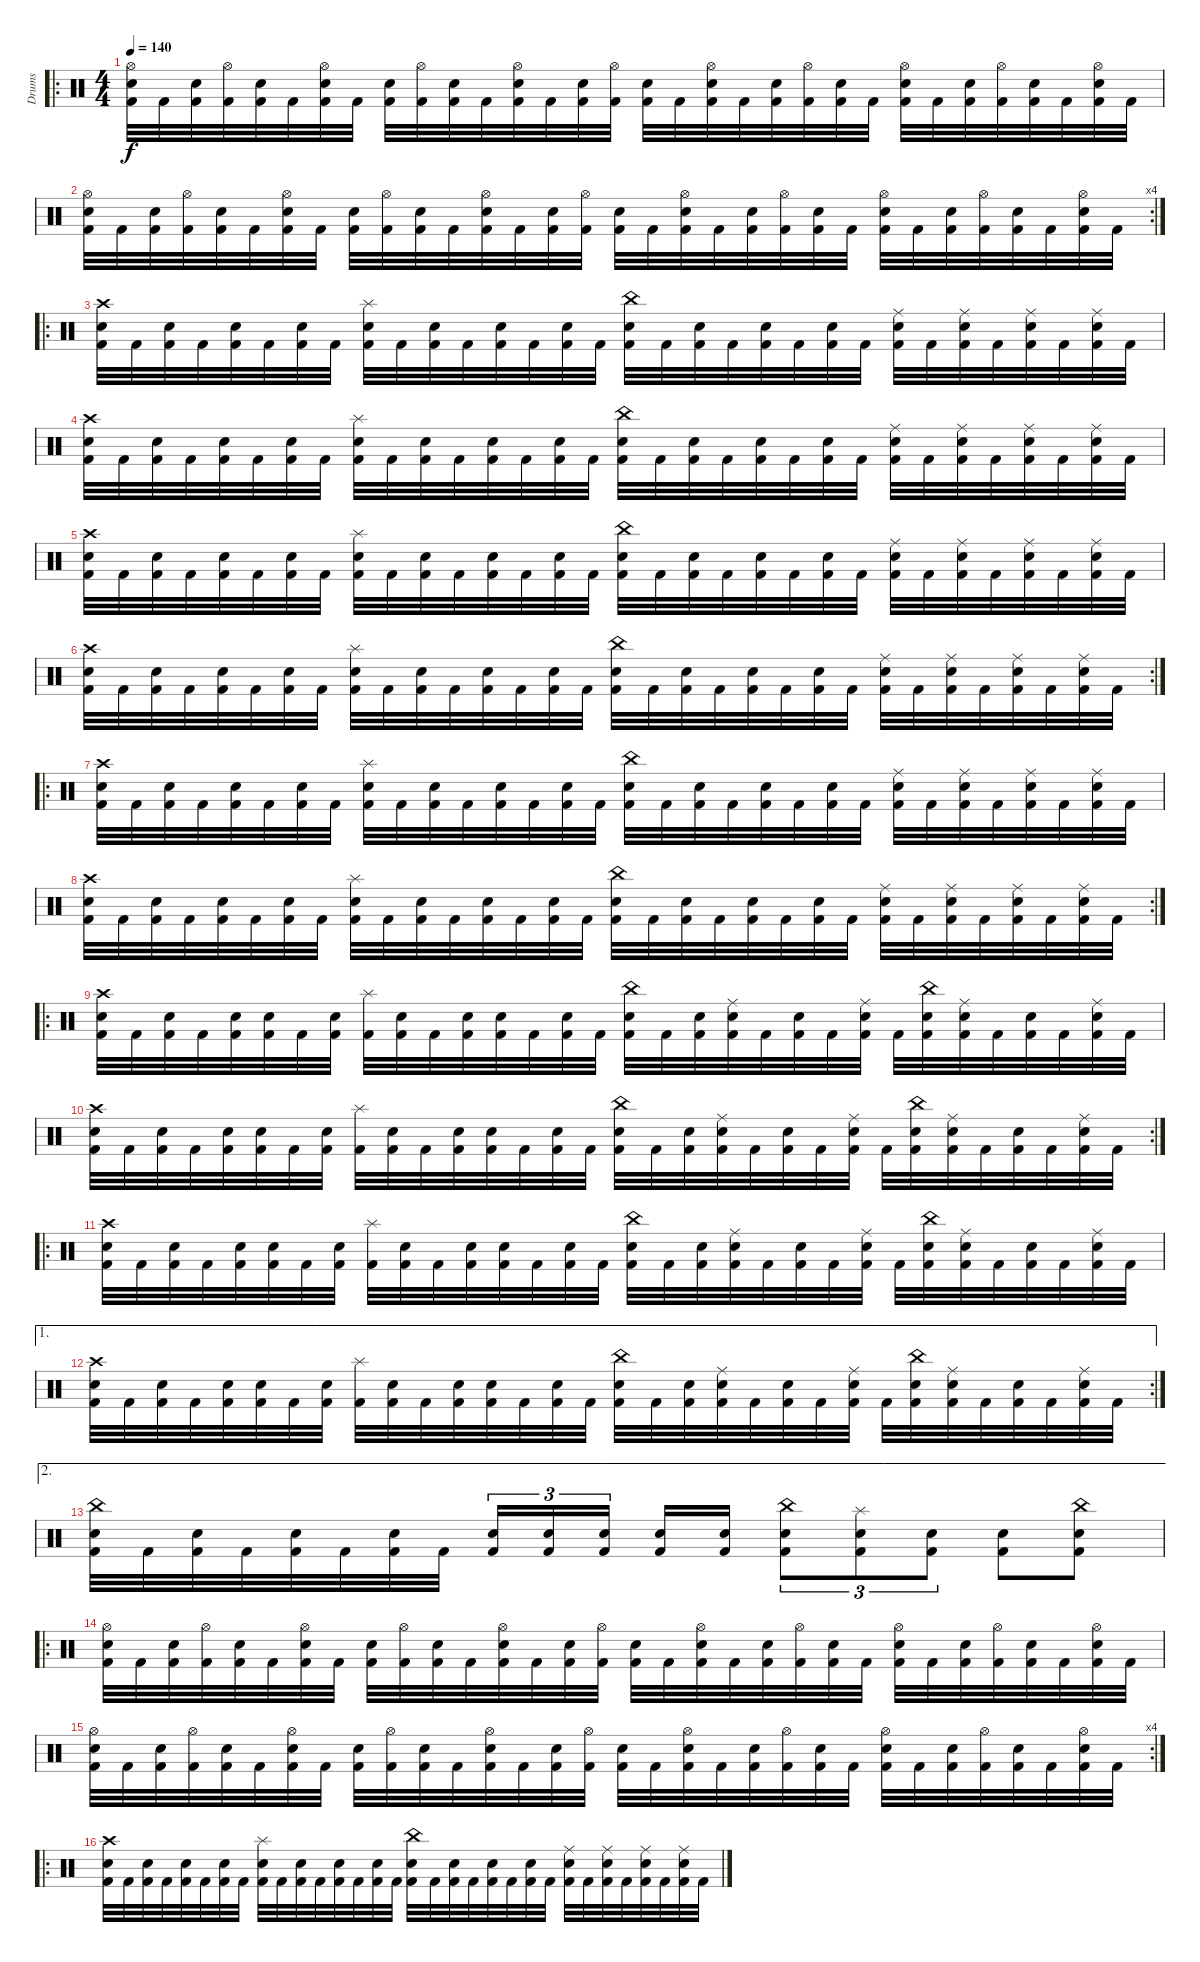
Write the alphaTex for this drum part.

\track ("Drums" "Drums") {instrument percussion}
\staff {score}
\articulation defaults
\ro
\ts (4 4)
\tempo 140
\clef neutral
\ks c
("Hi-Hat (open)" "Snare (hit) 2" "Kick (hit) 2").32{dy f} "Kick (hit) 2".32 ("Snare (hit) 2" "Kick (hit) 2").32 ("Hi-Hat (open)" "Kick (hit) 2").32 ("Snare (hit) 2" "Kick (hit) 2").32 "Kick (hit) 2".32 ("Hi-Hat (open)" "Snare (hit) 2" "Kick (hit) 2").32 "Kick (hit) 2".32 ("Snare (hit) 2" "Kick (hit) 2").32 ("Hi-Hat (open)" "Kick (hit) 2").32 ("Snare (hit) 2" "Kick (hit) 2").32 "Kick (hit) 2".32 ("Hi-Hat (open)" "Snare (hit) 2" "Kick (hit) 2").32 "Kick (hit) 2".32 ("Snare (hit) 2" "Kick (hit) 2").32 ("Hi-Hat (open)" "Kick (hit) 2").32 ("Snare (hit) 2" "Kick (hit) 2").32 "Kick (hit) 2".32 ("Hi-Hat (open)" "Snare (hit) 2" "Kick (hit) 2").32 "Kick (hit) 2".32 ("Snare (hit) 2" "Kick (hit) 2").32 ("Hi-Hat (open)" "Kick (hit) 2").32 ("Snare (hit) 2" "Kick (hit) 2").32 "Kick (hit) 2".32 ("Hi-Hat (open)" "Snare (hit) 2" "Kick (hit) 2").32 "Kick (hit) 2".32 ("Snare (hit) 2" "Kick (hit) 2").32 ("Hi-Hat (open)" "Kick (hit) 2").32 ("Snare (hit) 2" "Kick (hit) 2").32 "Kick (hit) 2".32 ("Hi-Hat (open)" "Snare (hit) 2" "Kick (hit) 2").32 "Kick (hit) 2".32 |
\rc 4
("Hi-Hat (open)" "Snare (hit) 2" "Kick (hit) 2").32 "Kick (hit) 2".32 ("Snare (hit) 2" "Kick (hit) 2").32 ("Hi-Hat (open)" "Kick (hit) 2").32 ("Snare (hit) 2" "Kick (hit) 2").32 "Kick (hit) 2".32 ("Hi-Hat (open)" "Snare (hit) 2" "Kick (hit) 2").32 "Kick (hit) 2".32 ("Snare (hit) 2" "Kick (hit) 2").32 ("Hi-Hat (open)" "Kick (hit) 2").32 ("Snare (hit) 2" "Kick (hit) 2").32 "Kick (hit) 2".32 ("Hi-Hat (open)" "Snare (hit) 2" "Kick (hit) 2").32 "Kick (hit) 2".32 ("Snare (hit) 2" "Kick (hit) 2").32 ("Hi-Hat (open)" "Kick (hit) 2").32 ("Snare (hit) 2" "Kick (hit) 2").32 "Kick (hit) 2".32 ("Hi-Hat (open)" "Snare (hit) 2" "Kick (hit) 2").32 "Kick (hit) 2".32 ("Snare (hit) 2" "Kick (hit) 2").32 ("Hi-Hat (open)" "Kick (hit) 2").32 ("Snare (hit) 2" "Kick (hit) 2").32 "Kick (hit) 2".32 ("Hi-Hat (open)" "Snare (hit) 2" "Kick (hit) 2").32 "Kick (hit) 2".32 ("Snare (hit) 2" "Kick (hit) 2").32 ("Hi-Hat (open)" "Kick (hit) 2").32 ("Snare (hit) 2" "Kick (hit) 2").32 "Kick (hit) 2".32 ("Hi-Hat (open)" "Snare (hit) 2" "Kick (hit) 2").32 "Kick (hit) 2".32 |
\ro
("Crash high (hit)" "Snare (hit) 2" "Kick (hit) 2").32 "Kick (hit) 2".32 ("Snare (hit) 2" "Kick (hit) 2").32 "Kick (hit) 2".32 ("Snare (hit) 2" "Kick (hit) 2").32 "Kick (hit) 2".32 ("Snare (hit) 2" "Kick (hit) 2").32 "Kick (hit) 2".32 ("Splash (hit)" "Snare (hit) 2" "Kick (hit) 2").32 "Kick (hit) 2".32 ("Snare (hit) 2" "Kick (hit) 2").32 "Kick (hit) 2".32 ("Snare (hit) 2" "Kick (hit) 2").32 "Kick (hit) 2".32 ("Snare (hit) 2" "Kick (hit) 2").32 "Kick (hit) 2".32 ("China (hit)" "Snare (hit) 2" "Kick (hit) 2").32 "Kick (hit) 2".32 ("Snare (hit) 2" "Kick (hit) 2").32 "Kick (hit) 2".32 ("Snare (hit) 2" "Kick (hit) 2").32 "Kick (hit) 2".32 ("Snare (hit) 2" "Kick (hit) 2").32 "Kick (hit) 2".32 ("Ride (middle)" "Snare (hit) 2" "Kick (hit) 2").32 "Kick (hit) 2".32 ("Ride (middle)" "Snare (hit) 2" "Kick (hit) 2").32 "Kick (hit) 2".32 ("Ride (middle)" "Snare (hit) 2" "Kick (hit) 2").32 "Kick (hit) 2".32 ("Ride (middle)" "Snare (hit) 2" "Kick (hit) 2").32 "Kick (hit) 2".32 |
("Crash high (hit)" "Snare (hit) 2" "Kick (hit) 2").32 "Kick (hit) 2".32 ("Snare (hit) 2" "Kick (hit) 2").32 "Kick (hit) 2".32 ("Snare (hit) 2" "Kick (hit) 2").32 "Kick (hit) 2".32 ("Snare (hit) 2" "Kick (hit) 2").32 "Kick (hit) 2".32 ("Splash (hit)" "Snare (hit) 2" "Kick (hit) 2").32 "Kick (hit) 2".32 ("Snare (hit) 2" "Kick (hit) 2").32 "Kick (hit) 2".32 ("Snare (hit) 2" "Kick (hit) 2").32 "Kick (hit) 2".32 ("Snare (hit) 2" "Kick (hit) 2").32 "Kick (hit) 2".32 ("China (hit)" "Snare (hit) 2" "Kick (hit) 2").32 "Kick (hit) 2".32 ("Snare (hit) 2" "Kick (hit) 2").32 "Kick (hit) 2".32 ("Snare (hit) 2" "Kick (hit) 2").32 "Kick (hit) 2".32 ("Snare (hit) 2" "Kick (hit) 2").32 "Kick (hit) 2".32 ("Ride (middle)" "Snare (hit) 2" "Kick (hit) 2").32 "Kick (hit) 2".32 ("Ride (middle)" "Snare (hit) 2" "Kick (hit) 2").32 "Kick (hit) 2".32 ("Ride (middle)" "Snare (hit) 2" "Kick (hit) 2").32 "Kick (hit) 2".32 ("Ride (middle)" "Snare (hit) 2" "Kick (hit) 2").32 "Kick (hit) 2".32 |
("Crash high (hit)" "Snare (hit) 2" "Kick (hit) 2").32 "Kick (hit) 2".32 ("Snare (hit) 2" "Kick (hit) 2").32 "Kick (hit) 2".32 ("Snare (hit) 2" "Kick (hit) 2").32 "Kick (hit) 2".32 ("Snare (hit) 2" "Kick (hit) 2").32 "Kick (hit) 2".32 ("Splash (hit)" "Snare (hit) 2" "Kick (hit) 2").32 "Kick (hit) 2".32 ("Snare (hit) 2" "Kick (hit) 2").32 "Kick (hit) 2".32 ("Snare (hit) 2" "Kick (hit) 2").32 "Kick (hit) 2".32 ("Snare (hit) 2" "Kick (hit) 2").32 "Kick (hit) 2".32 ("China (hit)" "Snare (hit) 2" "Kick (hit) 2").32 "Kick (hit) 2".32 ("Snare (hit) 2" "Kick (hit) 2").32 "Kick (hit) 2".32 ("Snare (hit) 2" "Kick (hit) 2").32 "Kick (hit) 2".32 ("Snare (hit) 2" "Kick (hit) 2").32 "Kick (hit) 2".32 ("Ride (middle)" "Snare (hit) 2" "Kick (hit) 2").32 "Kick (hit) 2".32 ("Ride (middle)" "Snare (hit) 2" "Kick (hit) 2").32 "Kick (hit) 2".32 ("Ride (middle)" "Snare (hit) 2" "Kick (hit) 2").32 "Kick (hit) 2".32 ("Ride (middle)" "Snare (hit) 2" "Kick (hit) 2").32 "Kick (hit) 2".32 |
\rc 2
("Crash high (hit)" "Snare (hit) 2" "Kick (hit) 2").32 "Kick (hit) 2".32 ("Snare (hit) 2" "Kick (hit) 2").32 "Kick (hit) 2".32 ("Snare (hit) 2" "Kick (hit) 2").32 "Kick (hit) 2".32 ("Snare (hit) 2" "Kick (hit) 2").32 "Kick (hit) 2".32 ("Splash (hit)" "Snare (hit) 2" "Kick (hit) 2").32 "Kick (hit) 2".32 ("Snare (hit) 2" "Kick (hit) 2").32 "Kick (hit) 2".32 ("Snare (hit) 2" "Kick (hit) 2").32 "Kick (hit) 2".32 ("Snare (hit) 2" "Kick (hit) 2").32 "Kick (hit) 2".32 ("China (hit)" "Snare (hit) 2" "Kick (hit) 2").32 "Kick (hit) 2".32 ("Snare (hit) 2" "Kick (hit) 2").32 "Kick (hit) 2".32 ("Snare (hit) 2" "Kick (hit) 2").32 "Kick (hit) 2".32 ("Snare (hit) 2" "Kick (hit) 2").32 "Kick (hit) 2".32 ("Ride (middle)" "Snare (hit) 2" "Kick (hit) 2").32 "Kick (hit) 2".32 ("Ride (middle)" "Snare (hit) 2" "Kick (hit) 2").32 "Kick (hit) 2".32 ("Ride (middle)" "Snare (hit) 2" "Kick (hit) 2").32 "Kick (hit) 2".32 ("Ride (middle)" "Snare (hit) 2" "Kick (hit) 2").32 "Kick (hit) 2".32 |
\ro
("Crash high (hit)" "Snare (hit) 2" "Kick (hit) 2").32 "Kick (hit) 2".32 ("Snare (hit) 2" "Kick (hit) 2").32 "Kick (hit) 2".32 ("Snare (hit) 2" "Kick (hit) 2").32 "Kick (hit) 2".32 ("Snare (hit) 2" "Kick (hit) 2").32 "Kick (hit) 2".32 ("Splash (hit)" "Snare (hit) 2" "Kick (hit) 2").32 "Kick (hit) 2".32 ("Snare (hit) 2" "Kick (hit) 2").32 "Kick (hit) 2".32 ("Snare (hit) 2" "Kick (hit) 2").32 "Kick (hit) 2".32 ("Snare (hit) 2" "Kick (hit) 2").32 "Kick (hit) 2".32 ("China (hit)" "Snare (hit) 2" "Kick (hit) 2").32 "Kick (hit) 2".32 ("Snare (hit) 2" "Kick (hit) 2").32 "Kick (hit) 2".32 ("Snare (hit) 2" "Kick (hit) 2").32 "Kick (hit) 2".32 ("Snare (hit) 2" "Kick (hit) 2").32 "Kick (hit) 2".32 ("Ride (middle)" "Snare (hit) 2" "Kick (hit) 2").32 "Kick (hit) 2".32 ("Ride (middle)" "Snare (hit) 2" "Kick (hit) 2").32 "Kick (hit) 2".32 ("Ride (middle)" "Snare (hit) 2" "Kick (hit) 2").32 "Kick (hit) 2".32 ("Ride (middle)" "Snare (hit) 2" "Kick (hit) 2").32 "Kick (hit) 2".32 |
\rc 2
("Crash high (hit)" "Snare (hit) 2" "Kick (hit) 2").32 "Kick (hit) 2".32 ("Snare (hit) 2" "Kick (hit) 2").32 "Kick (hit) 2".32 ("Snare (hit) 2" "Kick (hit) 2").32 "Kick (hit) 2".32 ("Snare (hit) 2" "Kick (hit) 2").32 "Kick (hit) 2".32 ("Splash (hit)" "Snare (hit) 2" "Kick (hit) 2").32 "Kick (hit) 2".32 ("Snare (hit) 2" "Kick (hit) 2").32 "Kick (hit) 2".32 ("Snare (hit) 2" "Kick (hit) 2").32 "Kick (hit) 2".32 ("Snare (hit) 2" "Kick (hit) 2").32 "Kick (hit) 2".32 ("China (hit)" "Snare (hit) 2" "Kick (hit) 2").32 "Kick (hit) 2".32 ("Snare (hit) 2" "Kick (hit) 2").32 "Kick (hit) 2".32 ("Snare (hit) 2" "Kick (hit) 2").32 "Kick (hit) 2".32 ("Snare (hit) 2" "Kick (hit) 2").32 "Kick (hit) 2".32 ("Ride (middle)" "Snare (hit) 2" "Kick (hit) 2").32 "Kick (hit) 2".32 ("Ride (middle)" "Snare (hit) 2" "Kick (hit) 2").32 "Kick (hit) 2".32 ("Ride (middle)" "Snare (hit) 2" "Kick (hit) 2").32 "Kick (hit) 2".32 ("Ride (middle)" "Snare (hit) 2" "Kick (hit) 2").32 "Kick (hit) 2".32 |
\ro
("Crash high (hit)" "Snare (hit) 2" "Kick (hit) 2").32 "Kick (hit) 2".32 ("Snare (hit) 2" "Kick (hit) 2").32 "Kick (hit) 2".32 ("Snare (hit) 2" "Kick (hit) 2").32 ("Snare (hit) 2" "Kick (hit) 2").32 "Kick (hit) 2".32 ("Snare (hit) 2" "Kick (hit) 2").32 ("Splash (hit)" "Kick (hit) 2").32 ("Snare (hit) 2" "Kick (hit) 2").32 "Kick (hit) 2".32 ("Snare (hit) 2" "Kick (hit) 2").32 ("Snare (hit) 2" "Kick (hit) 2").32 "Kick (hit) 2".32 ("Snare (hit) 2" "Kick (hit) 2").32 "Kick (hit) 2".32 ("China (hit)" "Snare (hit) 2" "Kick (hit) 2").32 "Kick (hit) 2".32 ("Snare (hit) 2" "Kick (hit) 2").32 ("Ride (middle)" "Snare (hit) 2" "Kick (hit) 2").32 "Kick (hit) 2".32 ("Snare (hit) 2" "Kick (hit) 2").32 "Kick (hit) 2".32 ("Ride (middle)" "Snare (hit) 2" "Kick (hit) 2").32 "Kick (hit) 2".32 ("China (hit)" "Snare (hit) 2" "Kick (hit) 2").32 ("Ride (middle)" "Snare (hit) 2" "Kick (hit) 2").32 "Kick (hit) 2".32 ("Snare (hit) 2" "Kick (hit) 2").32 "Kick (hit) 2".32 ("Ride (middle)" "Snare (hit) 2" "Kick (hit) 2").32 "Kick (hit) 2".32 |
\rc 2
("Crash high (hit)" "Snare (hit) 2" "Kick (hit) 2").32 "Kick (hit) 2".32 ("Snare (hit) 2" "Kick (hit) 2").32 "Kick (hit) 2".32 ("Snare (hit) 2" "Kick (hit) 2").32 ("Snare (hit) 2" "Kick (hit) 2").32 "Kick (hit) 2".32 ("Snare (hit) 2" "Kick (hit) 2").32 ("Splash (hit)" "Kick (hit) 2").32 ("Snare (hit) 2" "Kick (hit) 2").32 "Kick (hit) 2".32 ("Snare (hit) 2" "Kick (hit) 2").32 ("Snare (hit) 2" "Kick (hit) 2").32 "Kick (hit) 2".32 ("Snare (hit) 2" "Kick (hit) 2").32 "Kick (hit) 2".32 ("China (hit)" "Snare (hit) 2" "Kick (hit) 2").32 "Kick (hit) 2".32 ("Snare (hit) 2" "Kick (hit) 2").32 ("Ride (middle)" "Snare (hit) 2" "Kick (hit) 2").32 "Kick (hit) 2".32 ("Snare (hit) 2" "Kick (hit) 2").32 "Kick (hit) 2".32 ("Ride (middle)" "Snare (hit) 2" "Kick (hit) 2").32 "Kick (hit) 2".32 ("China (hit)" "Snare (hit) 2" "Kick (hit) 2").32 ("Ride (middle)" "Snare (hit) 2" "Kick (hit) 2").32 "Kick (hit) 2".32 ("Snare (hit) 2" "Kick (hit) 2").32 "Kick (hit) 2".32 ("Ride (middle)" "Snare (hit) 2" "Kick (hit) 2").32 "Kick (hit) 2".32 |
\ro
("Crash high (hit)" "Snare (hit) 2" "Kick (hit) 2").32 "Kick (hit) 2".32 ("Snare (hit) 2" "Kick (hit) 2").32 "Kick (hit) 2".32 ("Snare (hit) 2" "Kick (hit) 2").32 ("Snare (hit) 2" "Kick (hit) 2").32 "Kick (hit) 2".32 ("Snare (hit) 2" "Kick (hit) 2").32 ("Splash (hit)" "Kick (hit) 2").32 ("Snare (hit) 2" "Kick (hit) 2").32 "Kick (hit) 2".32 ("Snare (hit) 2" "Kick (hit) 2").32 ("Snare (hit) 2" "Kick (hit) 2").32 "Kick (hit) 2".32 ("Snare (hit) 2" "Kick (hit) 2").32 "Kick (hit) 2".32 ("China (hit)" "Snare (hit) 2" "Kick (hit) 2").32 "Kick (hit) 2".32 ("Snare (hit) 2" "Kick (hit) 2").32 ("Ride (middle)" "Snare (hit) 2" "Kick (hit) 2").32 "Kick (hit) 2".32 ("Snare (hit) 2" "Kick (hit) 2").32 "Kick (hit) 2".32 ("Ride (middle)" "Snare (hit) 2" "Kick (hit) 2").32 "Kick (hit) 2".32 ("China (hit)" "Snare (hit) 2" "Kick (hit) 2").32 ("Ride (middle)" "Snare (hit) 2" "Kick (hit) 2").32 "Kick (hit) 2".32 ("Snare (hit) 2" "Kick (hit) 2").32 "Kick (hit) 2".32 ("Ride (middle)" "Snare (hit) 2" "Kick (hit) 2").32 "Kick (hit) 2".32 |
\ae 1
\rc 2
("Crash high (hit)" "Snare (hit) 2" "Kick (hit) 2").32 "Kick (hit) 2".32 ("Snare (hit) 2" "Kick (hit) 2").32 "Kick (hit) 2".32 ("Snare (hit) 2" "Kick (hit) 2").32 ("Snare (hit) 2" "Kick (hit) 2").32 "Kick (hit) 2".32 ("Snare (hit) 2" "Kick (hit) 2").32 ("Splash (hit)" "Kick (hit) 2").32 ("Snare (hit) 2" "Kick (hit) 2").32 "Kick (hit) 2".32 ("Snare (hit) 2" "Kick (hit) 2").32 ("Snare (hit) 2" "Kick (hit) 2").32 "Kick (hit) 2".32 ("Snare (hit) 2" "Kick (hit) 2").32 "Kick (hit) 2".32 ("China (hit)" "Snare (hit) 2" "Kick (hit) 2").32 "Kick (hit) 2".32 ("Snare (hit) 2" "Kick (hit) 2").32 ("Ride (middle)" "Snare (hit) 2" "Kick (hit) 2").32 "Kick (hit) 2".32 ("Snare (hit) 2" "Kick (hit) 2").32 "Kick (hit) 2".32 ("Ride (middle)" "Snare (hit) 2" "Kick (hit) 2").32 "Kick (hit) 2".32 ("China (hit)" "Snare (hit) 2" "Kick (hit) 2").32 ("Ride (middle)" "Snare (hit) 2" "Kick (hit) 2").32 "Kick (hit) 2".32 ("Snare (hit) 2" "Kick (hit) 2").32 "Kick (hit) 2".32 ("Ride (middle)" "Snare (hit) 2" "Kick (hit) 2").32 "Kick (hit) 2".32 |
\ae 2
("China (hit)" "Snare (hit) 2" "Kick (hit) 2").32 "Kick (hit) 2".32 ("Snare (hit) 2" "Kick (hit) 2").32 "Kick (hit) 2".32 ("Snare (hit) 2" "Kick (hit) 2").32 "Kick (hit) 2".32 ("Snare (hit) 2" "Kick (hit) 2").32 "Kick (hit) 2".32 ("Snare (hit) 2" "Kick (hit) 2").16{tu (3 2)} ("Snare (hit) 2" "Kick (hit) 2").16{tu (3 2)} ("Snare (hit) 2" "Kick (hit) 2").16{tu (3 2) beam splitsecondary} ("Snare (hit) 2" "Kick (hit) 2").16 ("Snare (hit) 2" "Kick (hit) 2").16 ("China (hit)" "Snare (hit) 2" "Kick (hit) 2").8{tu (3 2)} ("Splash (hit)" "Snare (hit) 2" "Kick (hit) 2").8{tu (3 2)} ("Snare (hit) 2" "Kick (hit) 2").8{tu (3 2)} ("Snare (hit) 2" "Kick (hit) 2").8 ("China (hit)" "Snare (hit) 2" "Kick (hit) 2").8 |
\ro
("Hi-Hat (open)" "Snare (hit) 2" "Kick (hit) 2").32 "Kick (hit) 2".32 ("Snare (hit) 2" "Kick (hit) 2").32 ("Hi-Hat (open)" "Kick (hit) 2").32 ("Snare (hit) 2" "Kick (hit) 2").32 "Kick (hit) 2".32 ("Hi-Hat (open)" "Snare (hit) 2" "Kick (hit) 2").32 "Kick (hit) 2".32 ("Snare (hit) 2" "Kick (hit) 2").32 ("Hi-Hat (open)" "Kick (hit) 2").32 ("Snare (hit) 2" "Kick (hit) 2").32 "Kick (hit) 2".32 ("Hi-Hat (open)" "Snare (hit) 2" "Kick (hit) 2").32 "Kick (hit) 2".32 ("Snare (hit) 2" "Kick (hit) 2").32 ("Hi-Hat (open)" "Kick (hit) 2").32 ("Snare (hit) 2" "Kick (hit) 2").32 "Kick (hit) 2".32 ("Hi-Hat (open)" "Snare (hit) 2" "Kick (hit) 2").32 "Kick (hit) 2".32 ("Snare (hit) 2" "Kick (hit) 2").32 ("Hi-Hat (open)" "Kick (hit) 2").32 ("Snare (hit) 2" "Kick (hit) 2").32 "Kick (hit) 2".32 ("Hi-Hat (open)" "Snare (hit) 2" "Kick (hit) 2").32 "Kick (hit) 2".32 ("Snare (hit) 2" "Kick (hit) 2").32 ("Hi-Hat (open)" "Kick (hit) 2").32 ("Snare (hit) 2" "Kick (hit) 2").32 "Kick (hit) 2".32 ("Hi-Hat (open)" "Snare (hit) 2" "Kick (hit) 2").32 "Kick (hit) 2".32 |
\rc 4
("Hi-Hat (open)" "Snare (hit) 2" "Kick (hit) 2").32 "Kick (hit) 2".32 ("Snare (hit) 2" "Kick (hit) 2").32 ("Hi-Hat (open)" "Kick (hit) 2").32 ("Snare (hit) 2" "Kick (hit) 2").32 "Kick (hit) 2".32 ("Hi-Hat (open)" "Snare (hit) 2" "Kick (hit) 2").32 "Kick (hit) 2".32 ("Snare (hit) 2" "Kick (hit) 2").32 ("Hi-Hat (open)" "Kick (hit) 2").32 ("Snare (hit) 2" "Kick (hit) 2").32 "Kick (hit) 2".32 ("Hi-Hat (open)" "Snare (hit) 2" "Kick (hit) 2").32 "Kick (hit) 2".32 ("Snare (hit) 2" "Kick (hit) 2").32 ("Hi-Hat (open)" "Kick (hit) 2").32 ("Snare (hit) 2" "Kick (hit) 2").32 "Kick (hit) 2".32 ("Hi-Hat (open)" "Snare (hit) 2" "Kick (hit) 2").32 "Kick (hit) 2".32 ("Snare (hit) 2" "Kick (hit) 2").32 ("Hi-Hat (open)" "Kick (hit) 2").32 ("Snare (hit) 2" "Kick (hit) 2").32 "Kick (hit) 2".32 ("Hi-Hat (open)" "Snare (hit) 2" "Kick (hit) 2").32 "Kick (hit) 2".32 ("Snare (hit) 2" "Kick (hit) 2").32 ("Hi-Hat (open)" "Kick (hit) 2").32 ("Snare (hit) 2" "Kick (hit) 2").32 "Kick (hit) 2".32 ("Hi-Hat (open)" "Snare (hit) 2" "Kick (hit) 2").32 "Kick (hit) 2".32 |
\ro
("Crash high (hit)" "Snare (hit) 2" "Kick (hit) 2").32 "Kick (hit) 2".32 ("Snare (hit) 2" "Kick (hit) 2").32 "Kick (hit) 2".32 ("Snare (hit) 2" "Kick (hit) 2").32 "Kick (hit) 2".32 ("Snare (hit) 2" "Kick (hit) 2").32 "Kick (hit) 2".32 ("Splash (hit)" "Snare (hit) 2" "Kick (hit) 2").32 "Kick (hit) 2".32 ("Snare (hit) 2" "Kick (hit) 2").32 "Kick (hit) 2".32 ("Snare (hit) 2" "Kick (hit) 2").32 "Kick (hit) 2".32 ("Snare (hit) 2" "Kick (hit) 2").32 "Kick (hit) 2".32 ("China (hit)" "Snare (hit) 2" "Kick (hit) 2").32 "Kick (hit) 2".32 ("Snare (hit) 2" "Kick (hit) 2").32 "Kick (hit) 2".32 ("Snare (hit) 2" "Kick (hit) 2").32 "Kick (hit) 2".32 ("Snare (hit) 2" "Kick (hit) 2").32 "Kick (hit) 2".32 ("Ride (middle)" "Snare (hit) 2" "Kick (hit) 2").32 "Kick (hit) 2".32 ("Ride (middle)" "Snare (hit) 2" "Kick (hit) 2").32 "Kick (hit) 2".32 ("Ride (middle)" "Snare (hit) 2" "Kick (hit) 2").32 "Kick (hit) 2".32 ("Ride (middle)" "Snare (hit) 2" "Kick (hit) 2").32 "Kick (hit) 2".32
